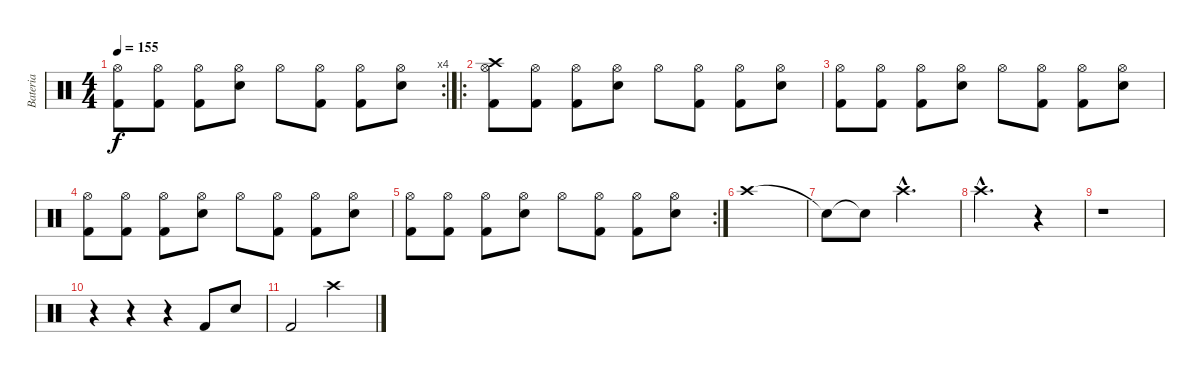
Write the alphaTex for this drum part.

\track ("Bateria" "Bateria") {instrument percussion}
\staff {score}
\articulation defaults
\rc 4
\ts (4 4)
\tempo 155
\clef neutral
\ks c
("Hi-Hat (open)" "Kick (hit) 2").8{dy f} ("Hi-Hat (open)" "Kick (hit) 2").8 ("Hi-Hat (open)" "Kick (hit) 2").8 ("Snare (hit) 2" "Hi-Hat (open)").8 "Hi-Hat (open)".8 ("Hi-Hat (open)" "Kick (hit) 2").8 ("Hi-Hat (open)" "Kick (hit) 2").8 ("Snare (hit) 2" "Hi-Hat (open)").8 |
\ro
("Crash high (hit)" "Hi-Hat (open)" "Kick (hit) 2").8 ("Hi-Hat (open)" "Kick (hit) 2").8 ("Hi-Hat (open)" "Kick (hit) 2").8 ("Snare (hit) 2" "Hi-Hat (open)").8 "Hi-Hat (open)".8 ("Hi-Hat (open)" "Kick (hit) 2").8 ("Hi-Hat (open)" "Kick (hit) 2").8 ("Snare (hit) 2" "Hi-Hat (open)").8 |
("Hi-Hat (open)" "Kick (hit) 2").8 ("Hi-Hat (open)" "Kick (hit) 2").8 ("Hi-Hat (open)" "Kick (hit) 2").8 ("Snare (hit) 2" "Hi-Hat (open)").8 "Hi-Hat (open)".8 ("Hi-Hat (open)" "Kick (hit) 2").8 ("Hi-Hat (open)" "Kick (hit) 2").8 ("Snare (hit) 2" "Hi-Hat (open)").8 |
("Hi-Hat (open)" "Kick (hit) 2").8 ("Hi-Hat (open)" "Kick (hit) 2").8 ("Hi-Hat (open)" "Kick (hit) 2").8 ("Snare (hit) 2" "Hi-Hat (open)").8 "Hi-Hat (open)".8 ("Hi-Hat (open)" "Kick (hit) 2").8 ("Hi-Hat (open)" "Kick (hit) 2").8 ("Snare (hit) 2" "Hi-Hat (open)").8 |
\rc 2
("Hi-Hat (open)" "Kick (hit) 2").8 ("Hi-Hat (open)" "Kick (hit) 2").8 ("Hi-Hat (open)" "Kick (hit) 2").8 ("Snare (hit) 2" "Hi-Hat (open)").8 "Hi-Hat (open)".8 ("Hi-Hat (open)" "Kick (hit) 2").8 ("Hi-Hat (open)" "Kick (hit) 2").8 ("Snare (hit) 2" "Hi-Hat (open)").8 |
"Crash high (hit)".1 |
"Snare (hit)"{t}.8 "Snare (hit)"{t}.8 "Crash high (hit)"{hac}.2{d} |
"Crash high (hit)"{hac}.2{d} r.4 |
r.1 |
r.4 r.4 r.4 "Kick (hit) 2".8 "Snare (hit) 2".8 |
"Kick (hit) 2".2 "Crash high (hit)".2
